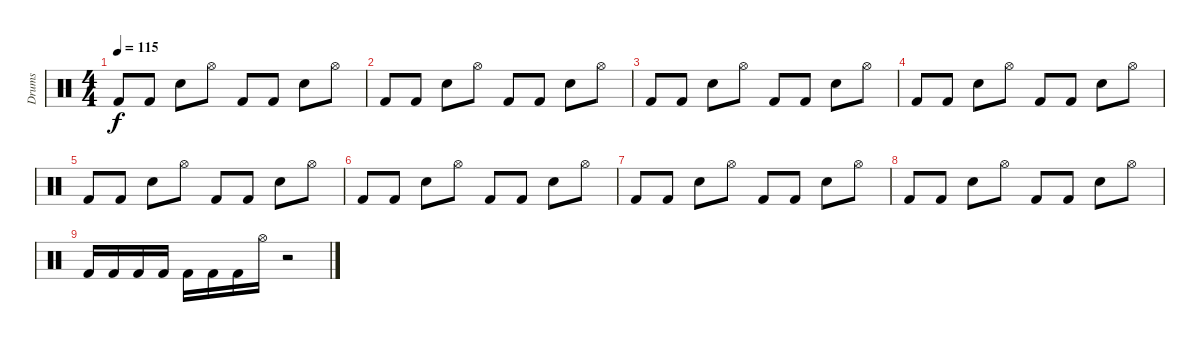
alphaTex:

\track ("Drums" "Drums") {instrument percussion}
\staff {score}
\articulation defaults
\ts (4 4)
\tempo 115
\clef neutral
\ks c "Kick (hit) 2".8{dy f} "Kick (hit) 2".8 "Electric Snare (hit)".8 "Hi-Hat (open)".8 "Kick (hit) 2".8 "Kick (hit) 2".8 "Electric Snare (hit)".8 "Hi-Hat (open)".8
|
"Kick (hit) 2".8 "Kick (hit) 2".8 "Electric Snare (hit)".8 "Hi-Hat (open)".8 "Kick (hit) 2".8 "Kick (hit) 2".8 "Electric Snare (hit)".8 "Hi-Hat (open)".8 |
"Kick (hit) 2".8 "Kick (hit) 2".8 "Electric Snare (hit)".8 "Hi-Hat (open)".8 "Kick (hit) 2".8 "Kick (hit) 2".8 "Electric Snare (hit)".8 "Hi-Hat (open)".8 |
"Kick (hit) 2".8 "Kick (hit) 2".8 "Electric Snare (hit)".8 "Hi-Hat (open)".8 "Kick (hit) 2".8 "Kick (hit) 2".8 "Electric Snare (hit)".8 "Hi-Hat (open)".8 |
"Kick (hit) 2".8 "Kick (hit) 2".8 "Electric Snare (hit)".8 "Hi-Hat (open)".8 "Kick (hit) 2".8 "Kick (hit) 2".8 "Electric Snare (hit)".8 "Hi-Hat (open)".8 |
"Kick (hit) 2".8 "Kick (hit) 2".8 "Electric Snare (hit)".8 "Hi-Hat (open)".8 "Kick (hit) 2".8 "Kick (hit) 2".8 "Electric Snare (hit)".8 "Hi-Hat (open)".8 |
"Kick (hit) 2".8 "Kick (hit) 2".8 "Electric Snare (hit)".8 "Hi-Hat (open)".8 "Kick (hit) 2".8 "Kick (hit) 2".8 "Electric Snare (hit)".8 "Hi-Hat (open)".8 |
"Kick (hit) 2".8 "Kick (hit) 2".8 "Electric Snare (hit)".8 "Hi-Hat (open)".8 "Kick (hit) 2".8 "Kick (hit) 2".8 "Electric Snare (hit)".8 "Hi-Hat (open)".8 |
"Kick (hit) 2".16 "Kick (hit) 2".16 "Kick (hit) 2".16 "Kick (hit) 2".16 "Kick (hit) 2".16 "Kick (hit) 2".16 "Kick (hit) 2".16 "Hi-Hat (open)".16 r.2
